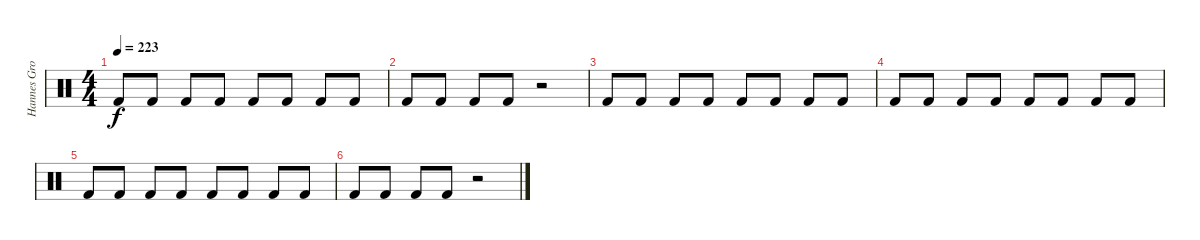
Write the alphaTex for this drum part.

\track ("Hannes Grossmann" "Hannes Gro") {instrument percussion}
\staff {score}
\articulation defaults
\ts (4 4)
\tempo 223
\clef neutral
\ks c "Kick (hit) 2".8{dy f} "Kick (hit) 2".8 "Kick (hit) 2".8 "Kick (hit) 2".8 "Kick (hit) 2".8 "Kick (hit) 2".8 "Kick (hit) 2".8 "Kick (hit) 2".8
|
"Kick (hit) 2".8 "Kick (hit) 2".8 "Kick (hit) 2".8 "Kick (hit) 2".8 r.2 |
"Kick (hit) 2".8 "Kick (hit) 2".8 "Kick (hit) 2".8 "Kick (hit) 2".8 "Kick (hit) 2".8 "Kick (hit) 2".8 "Kick (hit) 2".8 "Kick (hit) 2".8 |
"Kick (hit) 2".8 "Kick (hit) 2".8 "Kick (hit) 2".8 "Kick (hit) 2".8 "Kick (hit) 2".8 "Kick (hit) 2".8 "Kick (hit) 2".8 "Kick (hit) 2".8 |
"Kick (hit) 2".8 "Kick (hit) 2".8 "Kick (hit) 2".8 "Kick (hit) 2".8 "Kick (hit) 2".8 "Kick (hit) 2".8 "Kick (hit) 2".8 "Kick (hit) 2".8 |
"Kick (hit) 2".8 "Kick (hit) 2".8 "Kick (hit) 2".8 "Kick (hit) 2".8 r.2
